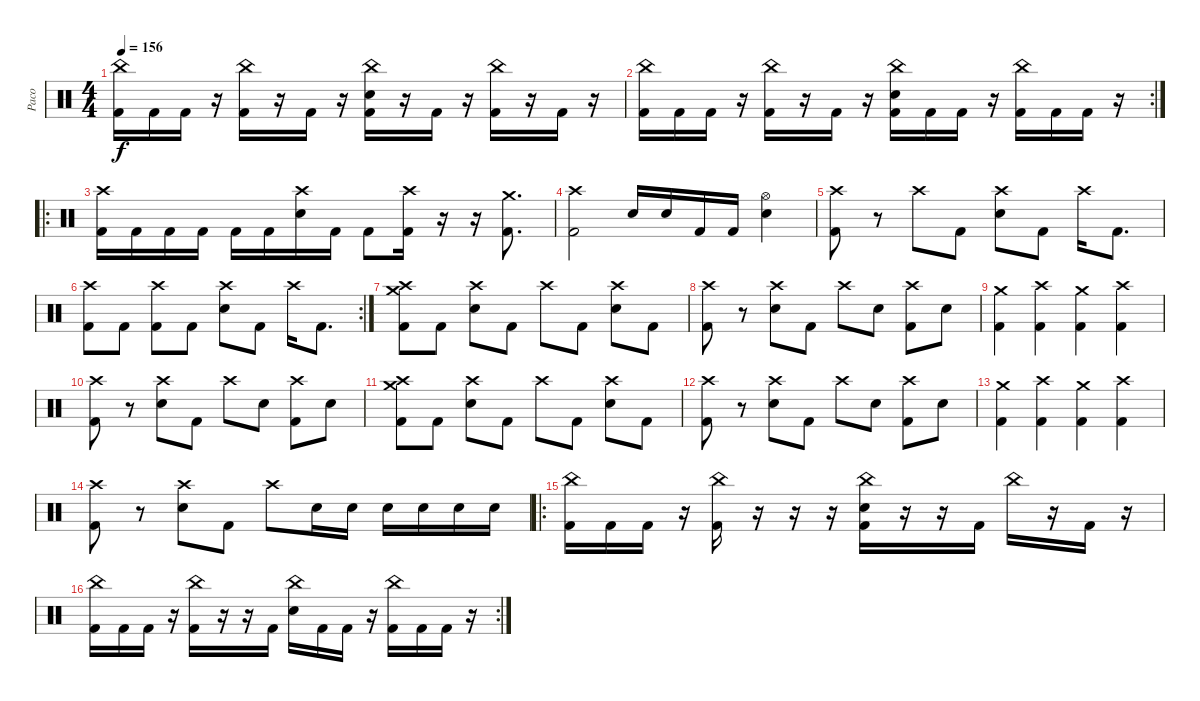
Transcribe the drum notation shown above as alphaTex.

\track ("Paco" "Paco") {instrument percussion}
\staff {score}
\articulation defaults
\ts (4 4)
\tempo 156
\clef neutral
\ks c
("China (hit)" "Kick (hit) 2").16{dy f} "Kick (hit) 2".16 "Kick (hit) 2".16 r.16 ("China (hit)" "Kick (hit) 2").16 r.16 "Kick (hit) 2".16 r.16 ("China (hit)" "Electric Snare (hit)" "Kick (hit) 2").16 r.16 "Kick (hit) 2".16 r.16 ("China (hit)" "Kick (hit) 2").16 r.16 "Kick (hit) 2".16 r.16 |
\rc 2
("China (hit)" "Kick (hit) 2").16 "Kick (hit) 2".16 "Kick (hit) 2".16 r.16 ("China (hit)" "Kick (hit) 2").16 r.16 "Kick (hit) 2".16 r.16 ("China (hit)" "Electric Snare (hit)" "Kick (hit) 2").16 "Kick (hit) 2".16 "Kick (hit) 2".16 r.16 ("China (hit)" "Kick (hit) 2").16 "Kick (hit) 2".16 "Kick (hit) 2".16 r.16 |
\ro
("Crash high (hit)" "Kick (hit) 2").16 "Kick (hit) 2".16 "Kick (hit) 2".16 "Kick (hit) 2".16 "Kick (hit) 2".16 "Kick (hit) 2".16 ("Crash high (hit)" "Electric Snare (hit)").16 "Kick (hit) 2".16 "Kick (hit) 2".8 ("Crash high (hit)" "Kick (hit) 2").16 r.16 r.16 ("Crash medium (hit)" "Kick (hit) 2").8{d} |
("Crash high (hit)" "Kick (hit) 2").2 "Electric Snare (hit)".16 "Electric Snare (hit)".16 "Kick (hit) 2".16 "Kick (hit) 2".16 ("Hi-Hat (open)" "Electric Snare (hit)").4 |
("Crash high (hit)" "Kick (hit) 2").8 r.8 "Crash high (hit)".8 "Kick (hit) 2".8 ("Crash high (hit)" "Electric Snare (hit)").8 "Kick (hit) 2".8 "Crash high (hit)".16 "Kick (hit) 2".8{d} |
\rc 2
("Crash high (hit)" "Kick (hit) 2").8 "Kick (hit) 2".8 ("Crash high (hit)" "Kick (hit) 2").8 "Kick (hit) 2".8 ("Crash high (hit)" "Electric Snare (hit)").8 "Kick (hit) 2".8 "Crash high (hit)".16 "Kick (hit) 2".8{d} |
("Crash high (hit)" "Crash medium (hit)" "Kick (hit) 2").8 "Kick (hit) 2".8 ("Crash high (hit)" "Electric Snare (hit)").8 "Kick (hit) 2".8 "Crash high (hit)".8 "Kick (hit) 2".8 ("Crash high (hit)" "Electric Snare (hit)").8 "Kick (hit) 2".8 |
("Crash high (hit)" "Kick (hit) 2").8 r.8 ("Crash high (hit)" "Electric Snare (hit)").8 "Kick (hit) 2".8 "Crash high (hit)".8 "Electric Snare (hit)".8 ("Crash high (hit)" "Kick (hit) 2").8 "Electric Snare (hit)".8 |
("Crash medium (hit)" "Kick (hit) 2").4 ("Crash high (hit)" "Kick (hit) 2").4 ("Crash medium (hit)" "Kick (hit) 2").4 ("Crash high (hit)" "Kick (hit) 2").4 |
("Crash high (hit)" "Kick (hit) 2").8 r.8 ("Crash high (hit)" "Electric Snare (hit)").8 "Kick (hit) 2".8 "Crash high (hit)".8 "Electric Snare (hit)".8 ("Crash high (hit)" "Kick (hit) 2").8 "Electric Snare (hit)".8 |
("Crash high (hit)" "Crash medium (hit)" "Kick (hit) 2").8 "Kick (hit) 2".8 ("Crash high (hit)" "Electric Snare (hit)").8 "Kick (hit) 2".8 "Crash high (hit)".8 "Kick (hit) 2".8 ("Crash high (hit)" "Electric Snare (hit)").8 "Kick (hit) 2".8 |
("Crash high (hit)" "Kick (hit) 2").8 r.8 ("Crash high (hit)" "Electric Snare (hit)").8 "Kick (hit) 2".8 "Crash high (hit)".8 "Electric Snare (hit)".8 ("Crash high (hit)" "Kick (hit) 2").8 "Electric Snare (hit)".8 |
("Crash medium (hit)" "Kick (hit) 2").4 ("Crash high (hit)" "Kick (hit) 2").4 ("Crash medium (hit)" "Kick (hit) 2").4 ("Crash high (hit)" "Kick (hit) 2").4 |
("Crash high (hit)" "Kick (hit) 2").8 r.8 ("Crash high (hit)" "Electric Snare (hit)").8 "Kick (hit) 2".8 "Crash high (hit)".8 "Electric Snare (hit)".16 "Electric Snare (hit)".16 "Electric Snare (hit)".16 "Electric Snare (hit)".16 "Electric Snare (hit)".16 "Electric Snare (hit)".16 |
\ro
("China (hit)" "Kick (hit) 2").16 "Kick (hit) 2".16 "Kick (hit) 2".16 r.16 ("China (hit)" "Kick (hit) 2").16 r.16 r.16 r.16 ("China (hit)" "Electric Snare (hit)" "Kick (hit) 2").16 r.16 r.16 "Kick (hit) 2".16 "China (hit)".16 r.16 "Kick (hit) 2".16 r.16 |
\rc 2
("China (hit)" "Kick (hit) 2").16 "Kick (hit) 2".16 "Kick (hit) 2".16 r.16 ("China (hit)" "Kick (hit) 2").16 r.16 r.16 "Kick (hit) 2".16 ("China (hit)" "Electric Snare (hit)").16 "Kick (hit) 2".16 "Kick (hit) 2".16 r.16 ("China (hit)" "Kick (hit) 2").16 "Kick (hit) 2".16 "Kick (hit) 2".16 r.16
